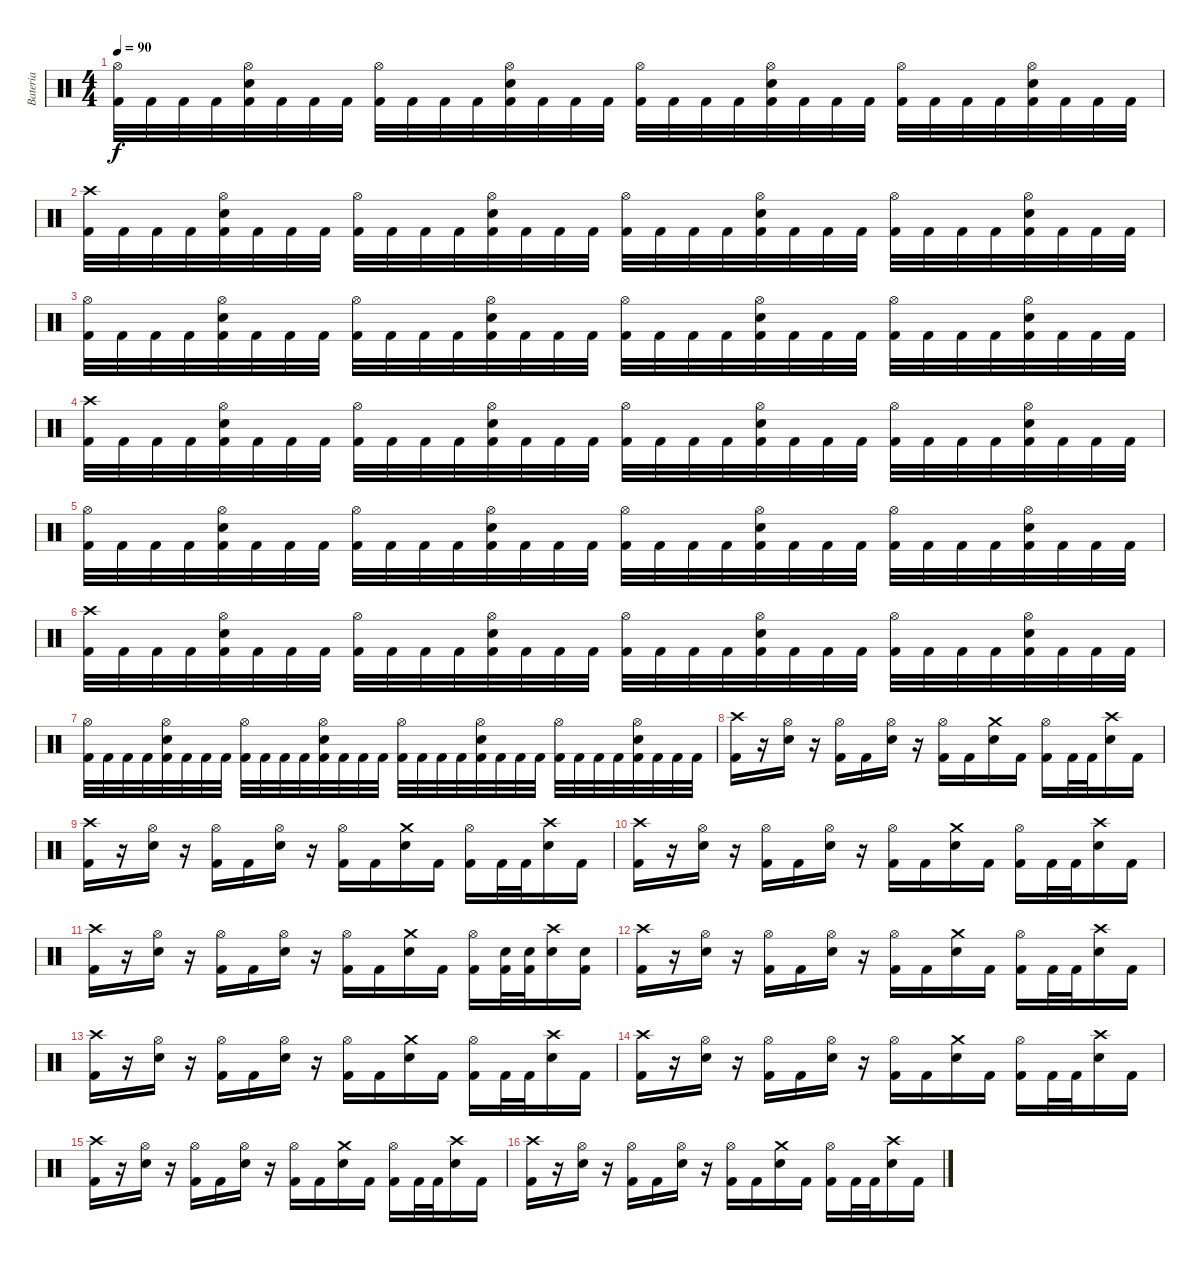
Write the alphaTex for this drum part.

\track ("Bateria" "Bateria") {instrument percussion}
\staff {score}
\articulation defaults
\ts (4 4)
\tempo 90
\clef neutral
\ks c
("Hi-Hat (open)" "Kick (hit) 2").32{dy f} "Kick (hit) 2".32 "Kick (hit) 2".32 "Kick (hit) 2".32 ("Hi-Hat (open)" "Snare (hit) 2" "Kick (hit) 2").32 "Kick (hit) 2".32 "Kick (hit) 2".32 "Kick (hit) 2".32 ("Hi-Hat (open)" "Kick (hit) 2").32 "Kick (hit) 2".32 "Kick (hit) 2".32 "Kick (hit) 2".32 ("Hi-Hat (open)" "Snare (hit) 2" "Kick (hit) 2").32 "Kick (hit) 2".32 "Kick (hit) 2".32 "Kick (hit) 2".32 ("Hi-Hat (open)" "Kick (hit) 2").32 "Kick (hit) 2".32 "Kick (hit) 2".32 "Kick (hit) 2".32 ("Hi-Hat (open)" "Snare (hit) 2" "Kick (hit) 2").32 "Kick (hit) 2".32 "Kick (hit) 2".32 "Kick (hit) 2".32 ("Hi-Hat (open)" "Kick (hit) 2").32 "Kick (hit) 2".32 "Kick (hit) 2".32 "Kick (hit) 2".32 ("Hi-Hat (open)" "Snare (hit) 2" "Kick (hit) 2").32 "Kick (hit) 2".32 "Kick (hit) 2".32 "Kick (hit) 2".32 |
("Crash high (hit)" "Kick (hit) 2").32 "Kick (hit) 2".32 "Kick (hit) 2".32 "Kick (hit) 2".32 ("Hi-Hat (open)" "Snare (hit) 2" "Kick (hit) 2").32 "Kick (hit) 2".32 "Kick (hit) 2".32 "Kick (hit) 2".32 ("Hi-Hat (open)" "Kick (hit) 2").32 "Kick (hit) 2".32 "Kick (hit) 2".32 "Kick (hit) 2".32 ("Hi-Hat (open)" "Snare (hit) 2" "Kick (hit) 2").32 "Kick (hit) 2".32 "Kick (hit) 2".32 "Kick (hit) 2".32 ("Hi-Hat (open)" "Kick (hit) 2").32 "Kick (hit) 2".32 "Kick (hit) 2".32 "Kick (hit) 2".32 ("Hi-Hat (open)" "Snare (hit) 2" "Kick (hit) 2").32 "Kick (hit) 2".32 "Kick (hit) 2".32 "Kick (hit) 2".32 ("Hi-Hat (open)" "Kick (hit) 2").32 "Kick (hit) 2".32 "Kick (hit) 2".32 "Kick (hit) 2".32 ("Hi-Hat (open)" "Snare (hit) 2" "Kick (hit) 2").32 "Kick (hit) 2".32 "Kick (hit) 2".32 "Kick (hit) 2".32 |
("Hi-Hat (open)" "Kick (hit) 2").32 "Kick (hit) 2".32 "Kick (hit) 2".32 "Kick (hit) 2".32 ("Hi-Hat (open)" "Snare (hit) 2" "Kick (hit) 2").32 "Kick (hit) 2".32 "Kick (hit) 2".32 "Kick (hit) 2".32 ("Hi-Hat (open)" "Kick (hit) 2").32 "Kick (hit) 2".32 "Kick (hit) 2".32 "Kick (hit) 2".32 ("Hi-Hat (open)" "Snare (hit) 2" "Kick (hit) 2").32 "Kick (hit) 2".32 "Kick (hit) 2".32 "Kick (hit) 2".32 ("Hi-Hat (open)" "Kick (hit) 2").32 "Kick (hit) 2".32 "Kick (hit) 2".32 "Kick (hit) 2".32 ("Hi-Hat (open)" "Snare (hit) 2" "Kick (hit) 2").32 "Kick (hit) 2".32 "Kick (hit) 2".32 "Kick (hit) 2".32 ("Hi-Hat (open)" "Kick (hit) 2").32 "Kick (hit) 2".32 "Kick (hit) 2".32 "Kick (hit) 2".32 ("Hi-Hat (open)" "Snare (hit) 2" "Kick (hit) 2").32 "Kick (hit) 2".32 "Kick (hit) 2".32 "Kick (hit) 2".32 |
("Crash high (hit)" "Kick (hit) 2").32 "Kick (hit) 2".32 "Kick (hit) 2".32 "Kick (hit) 2".32 ("Hi-Hat (open)" "Snare (hit) 2" "Kick (hit) 2").32 "Kick (hit) 2".32 "Kick (hit) 2".32 "Kick (hit) 2".32 ("Hi-Hat (open)" "Kick (hit) 2").32 "Kick (hit) 2".32 "Kick (hit) 2".32 "Kick (hit) 2".32 ("Hi-Hat (open)" "Snare (hit) 2" "Kick (hit) 2").32 "Kick (hit) 2".32 "Kick (hit) 2".32 "Kick (hit) 2".32 ("Hi-Hat (open)" "Kick (hit) 2").32 "Kick (hit) 2".32 "Kick (hit) 2".32 "Kick (hit) 2".32 ("Hi-Hat (open)" "Snare (hit) 2" "Kick (hit) 2").32 "Kick (hit) 2".32 "Kick (hit) 2".32 "Kick (hit) 2".32 ("Hi-Hat (open)" "Kick (hit) 2").32 "Kick (hit) 2".32 "Kick (hit) 2".32 "Kick (hit) 2".32 ("Hi-Hat (open)" "Snare (hit) 2" "Kick (hit) 2").32 "Kick (hit) 2".32 "Kick (hit) 2".32 "Kick (hit) 2".32 |
("Hi-Hat (open)" "Kick (hit) 2").32 "Kick (hit) 2".32 "Kick (hit) 2".32 "Kick (hit) 2".32 ("Hi-Hat (open)" "Snare (hit) 2" "Kick (hit) 2").32 "Kick (hit) 2".32 "Kick (hit) 2".32 "Kick (hit) 2".32 ("Hi-Hat (open)" "Kick (hit) 2").32 "Kick (hit) 2".32 "Kick (hit) 2".32 "Kick (hit) 2".32 ("Hi-Hat (open)" "Snare (hit) 2" "Kick (hit) 2").32 "Kick (hit) 2".32 "Kick (hit) 2".32 "Kick (hit) 2".32 ("Hi-Hat (open)" "Kick (hit) 2").32 "Kick (hit) 2".32 "Kick (hit) 2".32 "Kick (hit) 2".32 ("Hi-Hat (open)" "Snare (hit) 2" "Kick (hit) 2").32 "Kick (hit) 2".32 "Kick (hit) 2".32 "Kick (hit) 2".32 ("Hi-Hat (open)" "Kick (hit) 2").32 "Kick (hit) 2".32 "Kick (hit) 2".32 "Kick (hit) 2".32 ("Hi-Hat (open)" "Snare (hit) 2" "Kick (hit) 2").32 "Kick (hit) 2".32 "Kick (hit) 2".32 "Kick (hit) 2".32 |
("Crash high (hit)" "Kick (hit) 2").32 "Kick (hit) 2".32 "Kick (hit) 2".32 "Kick (hit) 2".32 ("Hi-Hat (open)" "Snare (hit) 2" "Kick (hit) 2").32 "Kick (hit) 2".32 "Kick (hit) 2".32 "Kick (hit) 2".32 ("Hi-Hat (open)" "Kick (hit) 2").32 "Kick (hit) 2".32 "Kick (hit) 2".32 "Kick (hit) 2".32 ("Hi-Hat (open)" "Snare (hit) 2" "Kick (hit) 2").32 "Kick (hit) 2".32 "Kick (hit) 2".32 "Kick (hit) 2".32 ("Hi-Hat (open)" "Kick (hit) 2").32 "Kick (hit) 2".32 "Kick (hit) 2".32 "Kick (hit) 2".32 ("Hi-Hat (open)" "Snare (hit) 2" "Kick (hit) 2").32 "Kick (hit) 2".32 "Kick (hit) 2".32 "Kick (hit) 2".32 ("Hi-Hat (open)" "Kick (hit) 2").32 "Kick (hit) 2".32 "Kick (hit) 2".32 "Kick (hit) 2".32 ("Hi-Hat (open)" "Snare (hit) 2" "Kick (hit) 2").32 "Kick (hit) 2".32 "Kick (hit) 2".32 "Kick (hit) 2".32 |
("Hi-Hat (open)" "Kick (hit) 2").32 "Kick (hit) 2".32 "Kick (hit) 2".32 "Kick (hit) 2".32 ("Hi-Hat (open)" "Snare (hit) 2" "Kick (hit) 2").32 "Kick (hit) 2".32 "Kick (hit) 2".32 "Kick (hit) 2".32 ("Hi-Hat (open)" "Kick (hit) 2").32 "Kick (hit) 2".32 "Kick (hit) 2".32 "Kick (hit) 2".32 ("Hi-Hat (open)" "Snare (hit) 2" "Kick (hit) 2").32 "Kick (hit) 2".32 "Kick (hit) 2".32 "Kick (hit) 2".32 ("Hi-Hat (open)" "Kick (hit) 2").32 "Kick (hit) 2".32 "Kick (hit) 2".32 "Kick (hit) 2".32 ("Hi-Hat (open)" "Snare (hit) 2" "Kick (hit) 2").32 "Kick (hit) 2".32 "Kick (hit) 2".32 "Kick (hit) 2".32 ("Hi-Hat (open)" "Kick (hit) 2").32 "Kick (hit) 2".32 "Kick (hit) 2".32 "Kick (hit) 2".32 ("Hi-Hat (open)" "Snare (hit) 2" "Kick (hit) 2").32 "Kick (hit) 2".32 "Kick (hit) 2".32 "Kick (hit) 2".32 |
("Crash high (hit)" "Kick (hit) 2").16 r.16 ("Hi-Hat (open)" "Snare (hit) 2").16 r.16 ("Hi-Hat (open)" "Kick (hit) 2").16 "Kick (hit) 2".16 ("Hi-Hat (open)" "Snare (hit) 2").16 r.16 ("Hi-Hat (open)" "Kick (hit) 2").16 "Kick (hit) 2".16 ("Crash medium (hit)" "Snare (hit) 2").16 "Kick (hit) 2".16 ("Hi-Hat (open)" "Kick (hit) 2").16 "Kick (hit) 2".32 "Kick (hit) 2".32 ("Crash high (hit)" "Snare (hit) 2").16 "Kick (hit) 2".16 |
("Crash high (hit)" "Kick (hit) 2").16 r.16 ("Hi-Hat (open)" "Snare (hit) 2").16 r.16 ("Hi-Hat (open)" "Kick (hit) 2").16 "Kick (hit) 2".16 ("Hi-Hat (open)" "Snare (hit) 2").16 r.16 ("Hi-Hat (open)" "Kick (hit) 2").16 "Kick (hit) 2".16 ("Crash medium (hit)" "Snare (hit) 2").16 "Kick (hit) 2".16 ("Hi-Hat (open)" "Kick (hit) 2").16 "Kick (hit) 2".32 "Kick (hit) 2".32 ("Crash high (hit)" "Snare (hit) 2").16 "Kick (hit) 2".16 |
("Crash high (hit)" "Kick (hit) 2").16 r.16 ("Hi-Hat (open)" "Snare (hit) 2").16 r.16 ("Hi-Hat (open)" "Kick (hit) 2").16 "Kick (hit) 2".16 ("Hi-Hat (open)" "Snare (hit) 2").16 r.16 ("Hi-Hat (open)" "Kick (hit) 2").16 "Kick (hit) 2".16 ("Crash medium (hit)" "Snare (hit) 2").16 "Kick (hit) 2".16 ("Hi-Hat (open)" "Kick (hit) 2").16 "Kick (hit) 2".32 "Kick (hit) 2".32 ("Crash high (hit)" "Snare (hit) 2").16 "Kick (hit) 2".16 |
("Crash high (hit)" "Kick (hit) 2").16 r.16 ("Hi-Hat (open)" "Snare (hit) 2").16 r.16 ("Hi-Hat (open)" "Kick (hit) 2").16 "Kick (hit) 2".16 ("Hi-Hat (open)" "Snare (hit) 2").16 r.16 ("Hi-Hat (open)" "Kick (hit) 2").16 "Kick (hit) 2".16 ("Crash medium (hit)" "Snare (hit) 2").16 "Kick (hit) 2".16 ("Hi-Hat (open)" "Kick (hit) 2").16 ("Snare (hit) 2" "Kick (hit) 2").32 ("Snare (hit) 2" "Kick (hit) 2").32 ("Crash high (hit)" "Snare (hit) 2").16 ("Snare (hit) 2" "Kick (hit) 2").16 |
("Crash high (hit)" "Kick (hit) 2").16 r.16 ("Hi-Hat (open)" "Snare (hit) 2").16 r.16 ("Hi-Hat (open)" "Kick (hit) 2").16 "Kick (hit) 2".16 ("Hi-Hat (open)" "Snare (hit) 2").16 r.16 ("Hi-Hat (open)" "Kick (hit) 2").16 "Kick (hit) 2".16 ("Crash medium (hit)" "Snare (hit) 2").16 "Kick (hit) 2".16 ("Hi-Hat (open)" "Kick (hit) 2").16 "Kick (hit) 2".32 "Kick (hit) 2".32 ("Crash high (hit)" "Snare (hit) 2").16 "Kick (hit) 2".16 |
("Crash high (hit)" "Kick (hit) 2").16 r.16 ("Hi-Hat (open)" "Snare (hit) 2").16 r.16 ("Hi-Hat (open)" "Kick (hit) 2").16 "Kick (hit) 2".16 ("Hi-Hat (open)" "Snare (hit) 2").16 r.16 ("Hi-Hat (open)" "Kick (hit) 2").16 "Kick (hit) 2".16 ("Crash medium (hit)" "Snare (hit) 2").16 "Kick (hit) 2".16 ("Hi-Hat (open)" "Kick (hit) 2").16 "Kick (hit) 2".32 "Kick (hit) 2".32 ("Crash high (hit)" "Snare (hit) 2").16 "Kick (hit) 2".16 |
("Crash high (hit)" "Kick (hit) 2").16 r.16 ("Hi-Hat (open)" "Snare (hit) 2").16 r.16 ("Hi-Hat (open)" "Kick (hit) 2").16 "Kick (hit) 2".16 ("Hi-Hat (open)" "Snare (hit) 2").16 r.16 ("Hi-Hat (open)" "Kick (hit) 2").16 "Kick (hit) 2".16 ("Crash medium (hit)" "Snare (hit) 2").16 "Kick (hit) 2".16 ("Hi-Hat (open)" "Kick (hit) 2").16 "Kick (hit) 2".32 "Kick (hit) 2".32 ("Crash high (hit)" "Snare (hit) 2").16 "Kick (hit) 2".16 |
("Crash high (hit)" "Kick (hit) 2").16 r.16 ("Hi-Hat (open)" "Snare (hit) 2").16 r.16 ("Hi-Hat (open)" "Kick (hit) 2").16 "Kick (hit) 2".16 ("Hi-Hat (open)" "Snare (hit) 2").16 r.16 ("Hi-Hat (open)" "Kick (hit) 2").16 "Kick (hit) 2".16 ("Crash medium (hit)" "Snare (hit) 2").16 "Kick (hit) 2".16 ("Hi-Hat (open)" "Kick (hit) 2").16 "Kick (hit) 2".32 "Kick (hit) 2".32 ("Crash high (hit)" "Snare (hit) 2").16 "Kick (hit) 2".16 |
("Crash high (hit)" "Kick (hit) 2").16 r.16 ("Hi-Hat (open)" "Snare (hit) 2").16 r.16 ("Hi-Hat (open)" "Kick (hit) 2").16 "Kick (hit) 2".16 ("Hi-Hat (open)" "Snare (hit) 2").16 r.16 ("Hi-Hat (open)" "Kick (hit) 2").16 "Kick (hit) 2".16 ("Crash medium (hit)" "Snare (hit) 2").16 "Kick (hit) 2".16 ("Hi-Hat (open)" "Kick (hit) 2").16 "Kick (hit) 2".32 "Kick (hit) 2".32 ("Crash high (hit)" "Snare (hit) 2").16 "Kick (hit) 2".16
